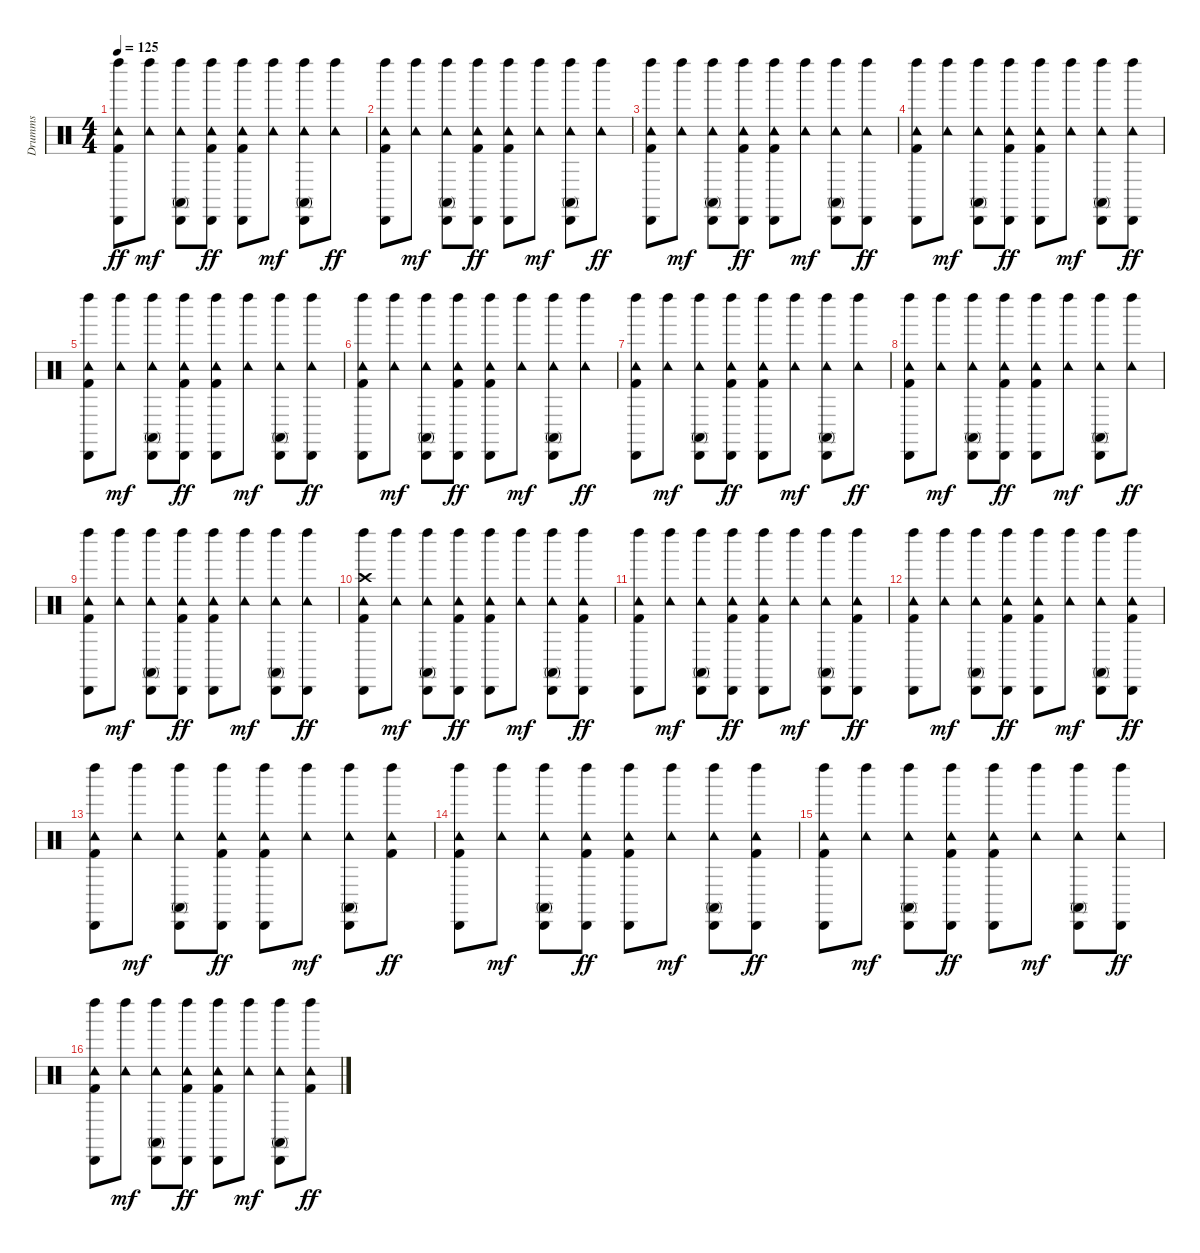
\track ("Drumms" "Drumms") {instrument percussion}
\staff {score}
\articulation defaults
\ts (4 4)
\tempo 125
\clef neutral
\ks c
("Kick (hit) 2" "Tambourine (hit)" "Cabasa (hit)" "Left Maraca (hit)").8{dy ff} ("Tambourine (hit)" "Left Maraca (hit)").8{dy mf} ("Conga high (mute)" "Tambourine (hit)" "Cabasa (hit)" "Left Maraca (hit)").8 ("Kick (hit) 2" "Tambourine (hit)" "Cabasa (hit)" "Left Maraca (hit)").8{dy ff} ("Kick (hit) 2" "Tambourine (hit)" "Cabasa (hit)" "Left Maraca (hit)").8 ("Tambourine (hit)" "Left Maraca (hit)").8{dy mf} ("Conga high (mute)" "Tambourine (hit)" "Cabasa (hit)" "Left Maraca (hit)").8 ("Tambourine (hit)" "Left Maraca (hit)").8{dy ff} |
("Kick (hit) 2" "Tambourine (hit)" "Cabasa (hit)" "Left Maraca (hit)").8 ("Tambourine (hit)" "Left Maraca (hit)").8{dy mf} ("Conga high (mute)" "Tambourine (hit)" "Cabasa (hit)" "Left Maraca (hit)").8 ("Kick (hit) 2" "Tambourine (hit)" "Cabasa (hit)" "Left Maraca (hit)").8{dy ff} ("Kick (hit) 2" "Tambourine (hit)" "Cabasa (hit)" "Left Maraca (hit)").8 ("Tambourine (hit)" "Left Maraca (hit)").8{dy mf} ("Conga high (mute)" "Tambourine (hit)" "Cabasa (hit)" "Left Maraca (hit)").8 ("Tambourine (hit)" "Left Maraca (hit)").8{dy ff} |
("Kick (hit) 2" "Tambourine (hit)" "Cabasa (hit)" "Left Maraca (hit)").8 ("Tambourine (hit)" "Left Maraca (hit)").8{dy mf} ("Conga high (mute)" "Tambourine (hit)" "Cabasa (hit)" "Left Maraca (hit)").8 ("Kick (hit) 2" "Tambourine (hit)" "Cabasa (hit)" "Left Maraca (hit)").8{dy ff} ("Kick (hit) 2" "Tambourine (hit)" "Cabasa (hit)" "Left Maraca (hit)").8 ("Tambourine (hit)" "Left Maraca (hit)").8{dy mf} ("Conga high (mute)" "Tambourine (hit)" "Cabasa (hit)" "Left Maraca (hit)").8 ("Tambourine (hit)" "Left Maraca (hit)" "Cabasa (hit)").8{dy ff} |
("Kick (hit) 2" "Tambourine (hit)" "Cabasa (hit)" "Left Maraca (hit)").8 ("Tambourine (hit)" "Left Maraca (hit)").8{dy mf} ("Conga high (mute)" "Tambourine (hit)" "Cabasa (hit)" "Left Maraca (hit)").8 ("Kick (hit) 2" "Tambourine (hit)" "Cabasa (hit)" "Left Maraca (hit)").8{dy ff} ("Kick (hit) 2" "Tambourine (hit)" "Cabasa (hit)" "Left Maraca (hit)").8 ("Tambourine (hit)" "Left Maraca (hit)").8{dy mf} ("Conga high (mute)" "Tambourine (hit)" "Cabasa (hit)" "Left Maraca (hit)").8 ("Tambourine (hit)" "Left Maraca (hit)" "Cabasa (hit)").8{dy ff} |
("Kick (hit) 2" "Tambourine (hit)" "Cabasa (hit)" "Left Maraca (hit)").8 ("Tambourine (hit)" "Left Maraca (hit)").8{dy mf} ("Conga high (mute)" "Tambourine (hit)" "Cabasa (hit)" "Left Maraca (hit)").8 ("Kick (hit) 2" "Tambourine (hit)" "Cabasa (hit)" "Left Maraca (hit)").8{dy ff} ("Kick (hit) 2" "Tambourine (hit)" "Cabasa (hit)" "Left Maraca (hit)").8 ("Tambourine (hit)" "Left Maraca (hit)").8{dy mf} ("Conga high (mute)" "Tambourine (hit)" "Cabasa (hit)" "Left Maraca (hit)").8 ("Tambourine (hit)" "Left Maraca (hit)" "Cabasa (hit)").8{dy ff} |
("Kick (hit) 2" "Tambourine (hit)" "Cabasa (hit)" "Left Maraca (hit)").8 ("Tambourine (hit)" "Left Maraca (hit)").8{dy mf} ("Conga high (mute)" "Tambourine (hit)" "Cabasa (hit)" "Left Maraca (hit)").8 ("Kick (hit) 2" "Tambourine (hit)" "Cabasa (hit)" "Left Maraca (hit)").8{dy ff} ("Kick (hit) 2" "Tambourine (hit)" "Cabasa (hit)" "Left Maraca (hit)").8 ("Tambourine (hit)" "Left Maraca (hit)").8{dy mf} ("Conga high (mute)" "Tambourine (hit)" "Cabasa (hit)" "Left Maraca (hit)").8 ("Tambourine (hit)" "Left Maraca (hit)").8{dy ff} |
("Kick (hit) 2" "Tambourine (hit)" "Cabasa (hit)" "Left Maraca (hit)").8 ("Tambourine (hit)" "Left Maraca (hit)").8{dy mf} ("Conga high (mute)" "Tambourine (hit)" "Cabasa (hit)" "Left Maraca (hit)").8 ("Kick (hit) 2" "Tambourine (hit)" "Cabasa (hit)" "Left Maraca (hit)").8{dy ff} ("Kick (hit) 2" "Tambourine (hit)" "Cabasa (hit)" "Left Maraca (hit)").8 ("Tambourine (hit)" "Left Maraca (hit)").8{dy mf} ("Conga high (mute)" "Tambourine (hit)" "Cabasa (hit)" "Left Maraca (hit)").8 ("Tambourine (hit)" "Left Maraca (hit)").8{dy ff} |
("Kick (hit) 2" "Tambourine (hit)" "Cabasa (hit)" "Left Maraca (hit)").8 ("Tambourine (hit)" "Left Maraca (hit)").8{dy mf} ("Conga high (mute)" "Tambourine (hit)" "Cabasa (hit)" "Left Maraca (hit)").8 ("Kick (hit) 2" "Tambourine (hit)" "Cabasa (hit)" "Left Maraca (hit)").8{dy ff} ("Kick (hit) 2" "Tambourine (hit)" "Cabasa (hit)" "Left Maraca (hit)").8 ("Tambourine (hit)" "Left Maraca (hit)").8{dy mf} ("Conga high (mute)" "Tambourine (hit)" "Cabasa (hit)" "Left Maraca (hit)").8 ("Tambourine (hit)" "Left Maraca (hit)").8{dy ff} |
("Kick (hit) 2" "Tambourine (hit)" "Cabasa (hit)" "Left Maraca (hit)").8 ("Tambourine (hit)" "Left Maraca (hit)").8{dy mf} ("Conga high (mute)" "Tambourine (hit)" "Cabasa (hit)" "Left Maraca (hit)").8 ("Kick (hit) 2" "Tambourine (hit)" "Cabasa (hit)" "Left Maraca (hit)").8{dy ff} ("Kick (hit) 2" "Tambourine (hit)" "Cabasa (hit)" "Left Maraca (hit)").8 ("Tambourine (hit)" "Left Maraca (hit)").8{dy mf} ("Conga high (mute)" "Tambourine (hit)" "Cabasa (hit)" "Left Maraca (hit)").8 ("Tambourine (hit)" "Left Maraca (hit)" "Cabasa (hit)").8{dy ff} |
("Kick (hit) 2" "Tambourine (hit)" "Cabasa (hit)" "Left Maraca (hit)" "Crash high (hit)").8 ("Tambourine (hit)" "Left Maraca (hit)").8{dy mf} ("Conga high (mute)" "Tambourine (hit)" "Cabasa (hit)" "Left Maraca (hit)").8 ("Kick (hit) 2" "Tambourine (hit)" "Cabasa (hit)" "Left Maraca (hit)").8{dy ff} ("Kick (hit) 2" "Tambourine (hit)" "Cabasa (hit)" "Left Maraca (hit)").8 ("Tambourine (hit)" "Left Maraca (hit)").8{dy mf} ("Conga high (mute)" "Tambourine (hit)" "Cabasa (hit)" "Left Maraca (hit)").8 ("Tambourine (hit)" "Left Maraca (hit)" "Cabasa (hit)" "Kick (hit) 2").8{dy ff} |
("Kick (hit) 2" "Tambourine (hit)" "Cabasa (hit)" "Left Maraca (hit)").8 ("Tambourine (hit)" "Left Maraca (hit)").8{dy mf} ("Conga high (mute)" "Tambourine (hit)" "Cabasa (hit)" "Left Maraca (hit)").8 ("Kick (hit) 2" "Tambourine (hit)" "Cabasa (hit)" "Left Maraca (hit)").8{dy ff} ("Kick (hit) 2" "Tambourine (hit)" "Cabasa (hit)" "Left Maraca (hit)").8 ("Tambourine (hit)" "Left Maraca (hit)").8{dy mf} ("Conga high (mute)" "Tambourine (hit)" "Cabasa (hit)" "Left Maraca (hit)").8 ("Tambourine (hit)" "Left Maraca (hit)" "Cabasa (hit)" "Kick (hit) 2").8{dy ff} |
("Kick (hit) 2" "Tambourine (hit)" "Cabasa (hit)" "Left Maraca (hit)").8 ("Tambourine (hit)" "Left Maraca (hit)").8{dy mf} ("Conga high (mute)" "Tambourine (hit)" "Cabasa (hit)" "Left Maraca (hit)").8 ("Kick (hit) 2" "Tambourine (hit)" "Cabasa (hit)" "Left Maraca (hit)").8{dy ff} ("Kick (hit) 2" "Tambourine (hit)" "Cabasa (hit)" "Left Maraca (hit)").8 ("Tambourine (hit)" "Left Maraca (hit)").8{dy mf} ("Conga high (mute)" "Tambourine (hit)" "Cabasa (hit)" "Left Maraca (hit)").8 ("Tambourine (hit)" "Left Maraca (hit)" "Cabasa (hit)" "Kick (hit) 2").8{dy ff} |
("Kick (hit) 2" "Tambourine (hit)" "Cabasa (hit)" "Left Maraca (hit)").8 ("Tambourine (hit)" "Left Maraca (hit)").8{dy mf} ("Conga high (mute)" "Tambourine (hit)" "Cabasa (hit)" "Left Maraca (hit)").8 ("Kick (hit) 2" "Tambourine (hit)" "Cabasa (hit)" "Left Maraca (hit)").8{dy ff} ("Kick (hit) 2" "Tambourine (hit)" "Cabasa (hit)" "Left Maraca (hit)").8 ("Tambourine (hit)" "Left Maraca (hit)").8{dy mf} ("Conga high (mute)" "Tambourine (hit)" "Cabasa (hit)" "Left Maraca (hit)").8 ("Tambourine (hit)" "Left Maraca (hit)" "Kick (hit) 2").8{dy ff} |
("Kick (hit) 2" "Tambourine (hit)" "Cabasa (hit)" "Left Maraca (hit)").8 ("Tambourine (hit)" "Left Maraca (hit)").8{dy mf} ("Conga high (mute)" "Tambourine (hit)" "Cabasa (hit)" "Left Maraca (hit)").8 ("Kick (hit) 2" "Tambourine (hit)" "Cabasa (hit)" "Left Maraca (hit)").8{dy ff} ("Kick (hit) 2" "Tambourine (hit)" "Cabasa (hit)" "Left Maraca (hit)").8 ("Tambourine (hit)" "Left Maraca (hit)").8{dy mf} ("Conga high (mute)" "Tambourine (hit)" "Cabasa (hit)" "Left Maraca (hit)").8 ("Tambourine (hit)" "Left Maraca (hit)" "Cabasa (hit)" "Kick (hit) 2").8{dy ff} |
("Kick (hit) 2" "Tambourine (hit)" "Cabasa (hit)" "Left Maraca (hit)").8 ("Tambourine (hit)" "Left Maraca (hit)").8{dy mf} ("Conga high (mute)" "Tambourine (hit)" "Cabasa (hit)" "Left Maraca (hit)").8 ("Kick (hit) 2" "Tambourine (hit)" "Cabasa (hit)" "Left Maraca (hit)").8{dy ff} ("Kick (hit) 2" "Tambourine (hit)" "Cabasa (hit)" "Left Maraca (hit)").8 ("Tambourine (hit)" "Left Maraca (hit)").8{dy mf} ("Conga high (mute)" "Tambourine (hit)" "Cabasa (hit)" "Left Maraca (hit)").8 ("Tambourine (hit)" "Left Maraca (hit)" "Cabasa (hit)").8{dy ff} |
("Kick (hit) 2" "Tambourine (hit)" "Cabasa (hit)" "Left Maraca (hit)").8 ("Tambourine (hit)" "Left Maraca (hit)").8{dy mf} ("Conga high (mute)" "Tambourine (hit)" "Cabasa (hit)" "Left Maraca (hit)").8 ("Kick (hit) 2" "Tambourine (hit)" "Cabasa (hit)" "Left Maraca (hit)").8{dy ff} ("Kick (hit) 2" "Tambourine (hit)" "Cabasa (hit)" "Left Maraca (hit)").8 ("Tambourine (hit)" "Left Maraca (hit)").8{dy mf} ("Conga high (mute)" "Tambourine (hit)" "Cabasa (hit)" "Left Maraca (hit)").8 ("Tambourine (hit)" "Left Maraca (hit)" "Kick (hit) 2").8{dy ff}
